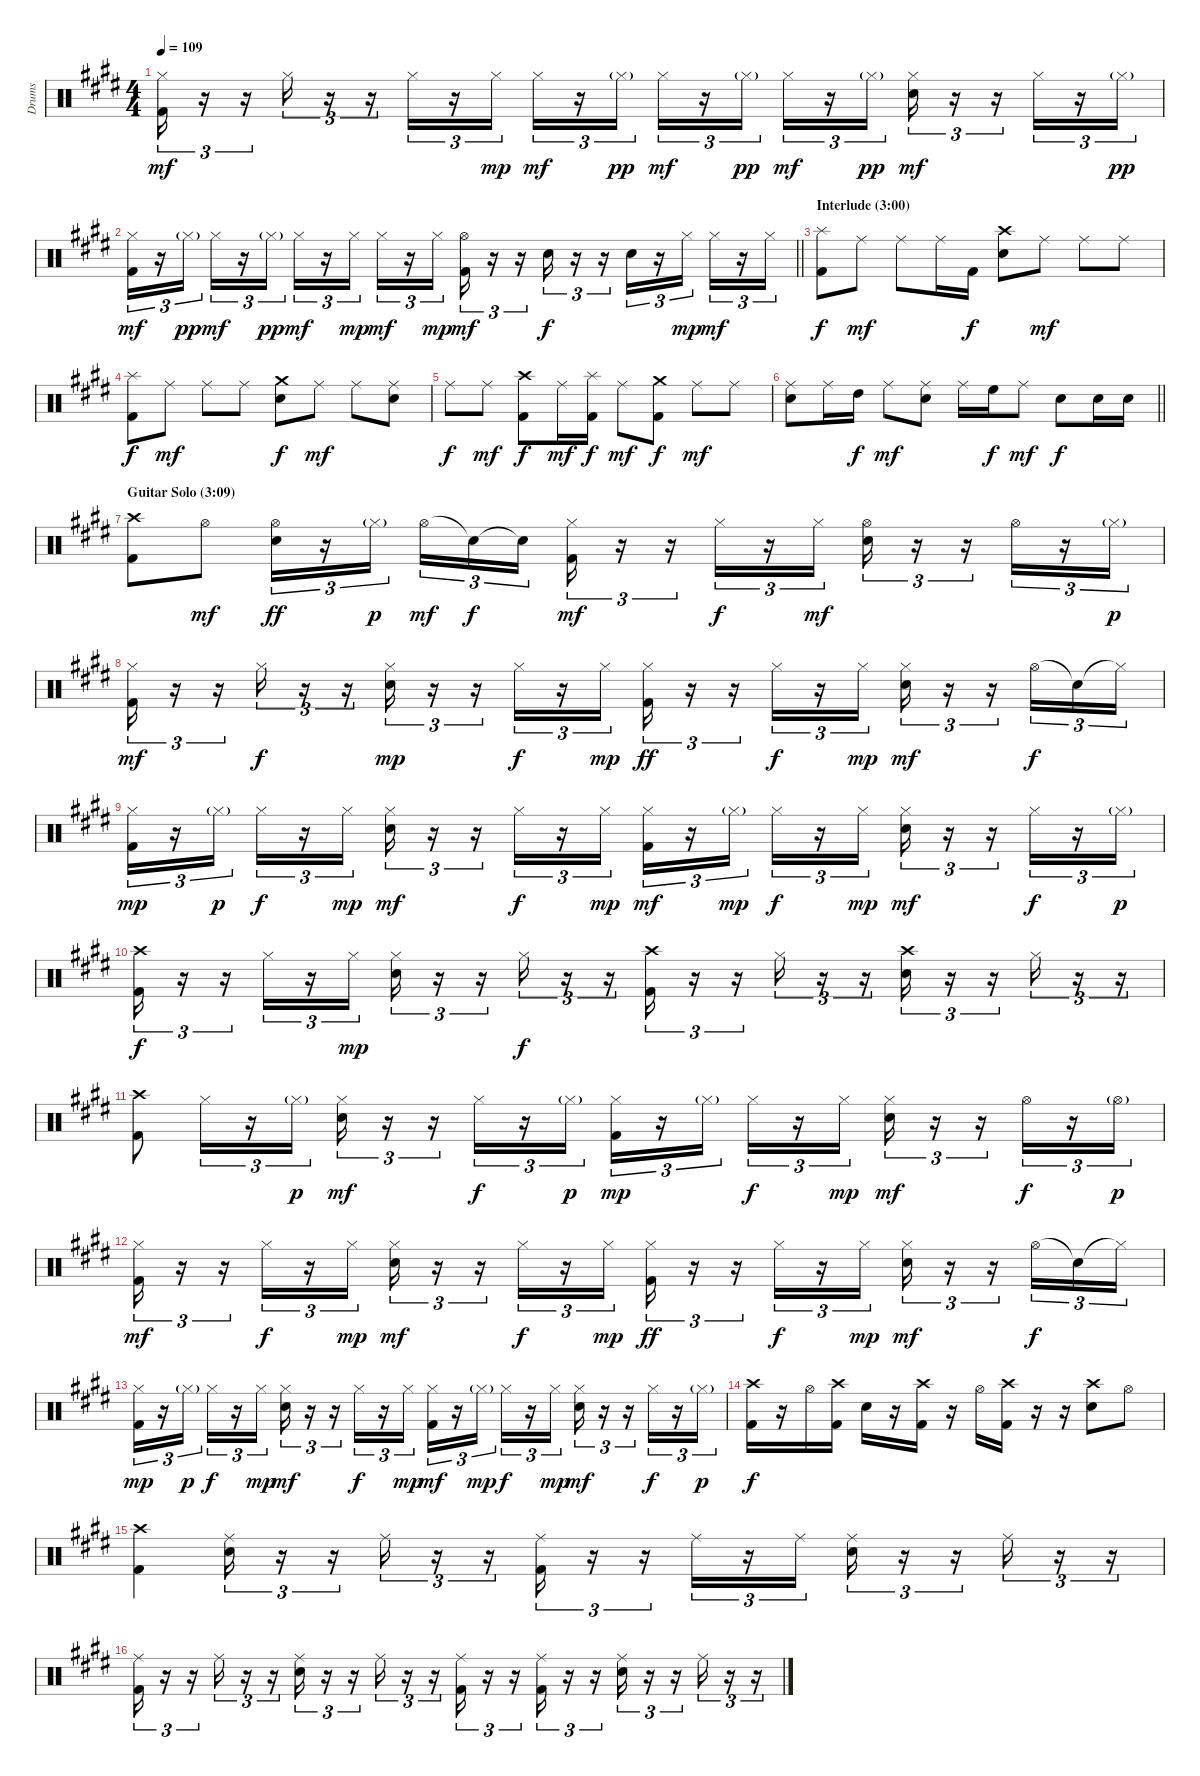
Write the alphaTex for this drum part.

\track ("Drums" "Drums") {instrument percussion}
\staff {score}
\articulation defaults
\ts (4 4)
\tempo 109
\clef neutral
\ks e
("Hi-Hat (closed)" "Kick (hit) 2").16{tu (3 2) dy mf} r.16{tu (3 2)} r.16{tu (3 2)} "Hi-Hat (closed)".16{tu (3 2)} r.16{tu (3 2)} r.16{tu (3 2)} "Hi-Hat (closed)".16{tu (3 2)} r.16{tu (3 2)} "Hi-Hat (closed)".16{tu (3 2) dy mp} "Hi-Hat (closed)".16{tu (3 2) dy mf} r.16{tu (3 2)} "Hi-Hat (closed)"{g}.16{tu (3 2) dy pp} "Hi-Hat (closed)".16{tu (3 2) dy mf} r.16{tu (3 2)} "Hi-Hat (closed)"{g}.16{tu (3 2) dy pp} "Hi-Hat (closed)".16{tu (3 2) dy mf} r.16{tu (3 2)} "Hi-Hat (closed)"{g}.16{tu (3 2) dy pp} ("Hi-Hat (closed)" "Electric Snare (hit)").16{tu (3 2) dy mf} r.16{tu (3 2)} r.16{tu (3 2)} "Hi-Hat (closed)".16{tu (3 2)} r.16{tu (3 2)} "Hi-Hat (closed)"{g}.16{tu (3 2) dy pp} |
\barLineRight lightlight
("Hi-Hat (closed)" "Kick (hit) 2").16{tu (3 2) dy mf} r.16{tu (3 2)} "Hi-Hat (closed)"{g}.16{tu (3 2) dy pp} "Hi-Hat (closed)".16{tu (3 2) dy mf} r.16{tu (3 2)} "Hi-Hat (closed)"{g}.16{tu (3 2) dy pp} "Hi-Hat (closed)".16{tu (3 2) dy mf} r.16{tu (3 2)} "Hi-Hat (closed)".16{tu (3 2) dy mp} "Hi-Hat (closed)".16{tu (3 2) dy mf} r.16{tu (3 2)} "Hi-Hat (closed)".16{tu (3 2) dy mp} ("Hi-Hat (open)" "Kick (hit) 2").16{tu (3 2) dy mf} r.16{tu (3 2)} r.16{tu (3 2)} "Electric Snare (hit)".16{tu (3 2) dy f} r.16{tu (3 2)} r.16{tu (3 2)} "Electric Snare (hit)".16{tu (3 2)} r.16{tu (3 2)} "Hi-Hat (closed)".16{tu (3 2) dy mp} "Hi-Hat (closed)".16{tu (3 2) dy mf} r.16{tu (3 2)} "Hi-Hat (closed)".16{tu (3 2)} |
\section ("" "Interlude (3:00)")
("Splash (hit)" "Kick (hit) 2").8{dy f} "Ride (middle)".8{dy mf} "Ride (middle)".8 "Ride (middle)".16 "Kick (hit) 2".16{dy f} ("Crash high (hit)" "Electric Snare (hit)").8 "Ride (middle)".8{dy mf} "Ride (middle)".8 "Ride (middle)".8 |
("Splash (hit)" "Kick (hit) 2").8{dy f} "Ride (middle)".8{dy mf} "Ride (middle)".8 "Ride (middle)".8 ("Crash medium (hit)" "Electric Snare (hit)").8{dy f} "Ride (middle)".8{dy mf} "Ride (middle)".8 ("Ride (middle)" "Electric Snare (hit)").8 |
"Ride (middle)".8{dy f} "Ride (middle)".8{dy mf} ("Crash high (hit)" "Kick (hit) 2").8{dy f} "Ride (middle)".16{dy mf} ("Splash (hit)" "Kick (hit) 2").16{dy f} "Ride (middle)".8{dy mf} ("Crash medium (hit)" "Kick (hit) 2").8{dy f} "Ride (middle)".8{dy mf} "Ride (middle)".8 |
\barLineRight lightlight
("Ride (middle)" "Electric Snare (hit)").8 "Ride (middle)".16 "High Tom (hit)".16{dy f} "Ride (middle)".8{dy mf} ("Ride (middle)" "Electric Snare (hit)").8 "Ride (middle)".16 "High Floor Tom (hit)".16{dy f} "Ride (middle)".8{dy mf} "Electric Snare (hit)".8{dy f} "Electric Snare (hit)".16 "Electric Snare (hit)".16 |
\section ("" "Guitar Solo (3:09)")
("Crash high (hit)" "Kick (hit) 2").8 "Hi-Hat (open)".8{dy mf} ("Hi-Hat (open)" "Electric Snare (hit)").16{tu (3 2) dy ff} r.16{tu (3 2)} "Hi-Hat (closed)"{g}.16{tu (3 2) dy p beam splitsecondary} "Hi-Hat (open)".16{tu (3 2) dy mf} "Snare (hit)"{t}.16{tu (3 2) dy f} "Snare (hit)"{t}.16{tu (3 2)} ("Hi-Hat (closed)" "Kick (hit) 2").16{tu (3 2) dy mf} r.16{tu (3 2)} r.16{tu (3 2)} "Hi-Hat (closed)".16{tu (3 2) dy f} r.16{tu (3 2)} "Hi-Hat (closed)".16{tu (3 2) dy mf} ("Hi-Hat (open)" "Electric Snare (hit)").16{tu (3 2)} r.16{tu (3 2)} r.16{tu (3 2)} "Hi-Hat (open)".16{tu (3 2)} r.16{tu (3 2)} "Hi-Hat (closed)"{g}.16{tu (3 2) dy p} |
("Hi-Hat (closed)" "Kick (hit) 2").16{tu (3 2) dy mf} r.16{tu (3 2)} r.16{tu (3 2)} "Hi-Hat (closed)".16{tu (3 2) dy f} r.16{tu (3 2)} r.16{tu (3 2)} ("Hi-Hat (closed)" "Electric Snare (hit)").16{tu (3 2) dy mp} r.16{tu (3 2)} r.16{tu (3 2)} "Hi-Hat (closed)".16{tu (3 2) dy f} r.16{tu (3 2)} "Hi-Hat (closed)".16{tu (3 2) dy mp} ("Hi-Hat (closed)" "Kick (hit) 2").16{tu (3 2) dy ff} r.16{tu (3 2)} r.16{tu (3 2)} "Hi-Hat (closed)".16{tu (3 2) dy f} r.16{tu (3 2)} "Hi-Hat (closed)".16{tu (3 2) dy mp} ("Hi-Hat (closed)" "Electric Snare (hit)").16{tu (3 2) dy mf} r.16{tu (3 2)} r.16{tu (3 2)} "Hi-Hat (open)".16{tu (3 2) dy f} "Snare (hit)"{t}.16{tu (3 2)} "Hi-Hat (closed)"{t}.16{tu (3 2)} |
("Hi-Hat (closed)" "Kick (hit) 2").16{tu (3 2) dy mp} r.16{tu (3 2)} "Hi-Hat (closed)"{g}.16{tu (3 2) dy p} "Hi-Hat (closed)".16{tu (3 2) dy f} r.16{tu (3 2)} "Hi-Hat (closed)".16{tu (3 2) dy mp} ("Hi-Hat (closed)" "Electric Snare (hit)").16{tu (3 2) dy mf} r.16{tu (3 2)} r.16{tu (3 2)} "Hi-Hat (closed)".16{tu (3 2) dy f} r.16{tu (3 2)} "Hi-Hat (closed)".16{tu (3 2) dy mp} ("Hi-Hat (closed)" "Kick (hit) 2").16{tu (3 2) dy mf} r.16{tu (3 2)} "Hi-Hat (closed)"{g}.16{tu (3 2) dy mp} "Hi-Hat (closed)".16{tu (3 2) dy f} r.16{tu (3 2)} "Hi-Hat (closed)".16{tu (3 2) dy mp} ("Hi-Hat (closed)" "Electric Snare (hit)").16{tu (3 2) dy mf} r.16{tu (3 2)} r.16{tu (3 2)} "Hi-Hat (closed)".16{tu (3 2) dy f} r.16{tu (3 2)} "Hi-Hat (closed)"{g}.16{tu (3 2) dy p} |
("Crash high (hit)" "Kick (hit) 2").16{tu (3 2) dy f} r.16{tu (3 2)} r.16{tu (3 2)} "Hi-Hat (closed)".16{tu (3 2)} r.16{tu (3 2)} "Hi-Hat (closed)".16{tu (3 2) dy mp} ("Hi-Hat (closed)" "Electric Snare (hit)").16{tu (3 2)} r.16{tu (3 2)} r.16{tu (3 2)} "Hi-Hat (closed)".16{tu (3 2) dy f} r.16{tu (3 2)} r.16{tu (3 2)} ("Crash high (hit)" "Kick (hit) 2").16{tu (3 2)} r.16{tu (3 2)} r.16{tu (3 2)} "Hi-Hat (closed)".16{tu (3 2)} r.16{tu (3 2)} r.16{tu (3 2)} ("Crash high (hit)" "Electric Snare (hit)").16{tu (3 2)} r.16{tu (3 2)} r.16{tu (3 2)} "Hi-Hat (closed)".16{tu (3 2)} r.16{tu (3 2)} r.16{tu (3 2)} |
("Crash high (hit)" "Kick (hit) 2").8 "Hi-Hat (closed)".16{tu (3 2)} r.16{tu (3 2)} "Hi-Hat (closed)"{g}.16{tu (3 2) dy p} ("Hi-Hat (closed)" "Electric Snare (hit)").16{tu (3 2) dy mf} r.16{tu (3 2)} r.16{tu (3 2)} "Hi-Hat (closed)".16{tu (3 2) dy f} r.16{tu (3 2)} "Hi-Hat (closed)"{g}.16{tu (3 2) dy p} ("Hi-Hat (closed)" "Kick (hit) 2").16{tu (3 2) dy mp} r.16{tu (3 2)} "Hi-Hat (closed)"{g}.16{tu (3 2)} "Hi-Hat (closed)".16{tu (3 2) dy f} r.16{tu (3 2)} "Hi-Hat (closed)".16{tu (3 2) dy mp} ("Hi-Hat (closed)" "Electric Snare (hit)").16{tu (3 2) dy mf} r.16{tu (3 2)} r.16{tu (3 2)} "Hi-Hat (open)".16{tu (3 2) dy f} r.16{tu (3 2)} "Hi-Hat (open)"{g}.16{tu (3 2) dy p} |
("Hi-Hat (closed)" "Kick (hit) 2").16{tu (3 2) dy mf} r.16{tu (3 2)} r.16{tu (3 2)} "Hi-Hat (closed)".16{tu (3 2) dy f} r.16{tu (3 2)} "Hi-Hat (closed)".16{tu (3 2) dy mp} ("Hi-Hat (closed)" "Electric Snare (hit)").16{tu (3 2) dy mf} r.16{tu (3 2)} r.16{tu (3 2)} "Hi-Hat (closed)".16{tu (3 2) dy f} r.16{tu (3 2)} "Hi-Hat (closed)".16{tu (3 2) dy mp} ("Hi-Hat (closed)" "Kick (hit) 2").16{tu (3 2) dy ff} r.16{tu (3 2)} r.16{tu (3 2)} "Hi-Hat (closed)".16{tu (3 2) dy f} r.16{tu (3 2)} "Hi-Hat (closed)".16{tu (3 2) dy mp} ("Hi-Hat (closed)" "Electric Snare (hit)").16{tu (3 2) dy mf} r.16{tu (3 2)} r.16{tu (3 2)} "Hi-Hat (open)".16{tu (3 2) dy f} "Snare (hit)"{t}.16{tu (3 2)} "Hi-Hat (closed)"{t}.16{tu (3 2)} |
("Hi-Hat (closed)" "Kick (hit) 2").16{tu (3 2) dy mp} r.16{tu (3 2)} "Hi-Hat (closed)"{g}.16{tu (3 2) dy p} "Hi-Hat (closed)".16{tu (3 2) dy f} r.16{tu (3 2)} "Hi-Hat (closed)".16{tu (3 2) dy mp} ("Hi-Hat (closed)" "Electric Snare (hit)").16{tu (3 2) dy mf} r.16{tu (3 2)} r.16{tu (3 2)} "Hi-Hat (closed)".16{tu (3 2) dy f} r.16{tu (3 2)} "Hi-Hat (closed)".16{tu (3 2) dy mp} ("Hi-Hat (closed)" "Kick (hit) 2").16{tu (3 2) dy mf} r.16{tu (3 2)} "Hi-Hat (closed)"{g}.16{tu (3 2) dy mp} "Hi-Hat (closed)".16{tu (3 2) dy f} r.16{tu (3 2)} "Hi-Hat (closed)".16{tu (3 2) dy mp} ("Hi-Hat (closed)" "Electric Snare (hit)").16{tu (3 2) dy mf} r.16{tu (3 2)} r.16{tu (3 2)} "Hi-Hat (closed)".16{tu (3 2) dy f} r.16{tu (3 2)} "Hi-Hat (closed)"{g}.16{tu (3 2) dy p} |
("Crash high (hit)" "Kick (hit) 2").16{dy f} r.16 "Hi-Hat (open)".16 ("Crash high (hit)" "Kick (hit) 2").16 "Electric Snare (hit)".16 r.16 ("Crash high (hit)" "Kick (hit) 2").16 r.16 "Hi-Hat (open)".16 ("Crash high (hit)" "Kick (hit) 2").16 r.16 r.16 ("Crash high (hit)" "Electric Snare (hit)").8 "Hi-Hat (open)".8 |
("Crash high (hit)" "Kick (hit) 2").4 ("Ride (middle)" "Electric Snare (hit)").16{tu (3 2)} r.16{tu (3 2)} r.16{tu (3 2)} "Ride (middle)".16{tu (3 2)} r.16{tu (3 2)} r.16{tu (3 2)} ("Ride (middle)" "Kick (hit) 2").16{tu (3 2)} r.16{tu (3 2)} r.16{tu (3 2)} "Ride (middle)".16{tu (3 2)} r.16{tu (3 2)} "Ride (middle)".16{tu (3 2)} ("Ride (middle)" "Electric Snare (hit)").16{tu (3 2)} r.16{tu (3 2)} r.16{tu (3 2)} "Ride (middle)".16{tu (3 2)} r.16{tu (3 2)} r.16{tu (3 2)} |
("Ride (middle)" "Kick (hit) 2").16{tu (3 2)} r.16{tu (3 2)} r.16{tu (3 2)} "Ride (middle)".16{tu (3 2)} r.16{tu (3 2)} r.16{tu (3 2)} ("Ride (middle)" "Electric Snare (hit)").16{tu (3 2)} r.16{tu (3 2)} r.16{tu (3 2)} "Ride (middle)".16{tu (3 2)} r.16{tu (3 2)} r.16{tu (3 2)} ("Ride (middle)" "Kick (hit) 2").16{tu (3 2)} r.16{tu (3 2)} r.16{tu (3 2)} ("Ride (middle)" "Kick (hit) 2").16{tu (3 2)} r.16{tu (3 2)} r.16{tu (3 2)} ("Ride (middle)" "Electric Snare (hit)").16{tu (3 2)} r.16{tu (3 2)} r.16{tu (3 2)} "Ride (middle)".16{tu (3 2)} r.16{tu (3 2)} r.16{tu (3 2)}
